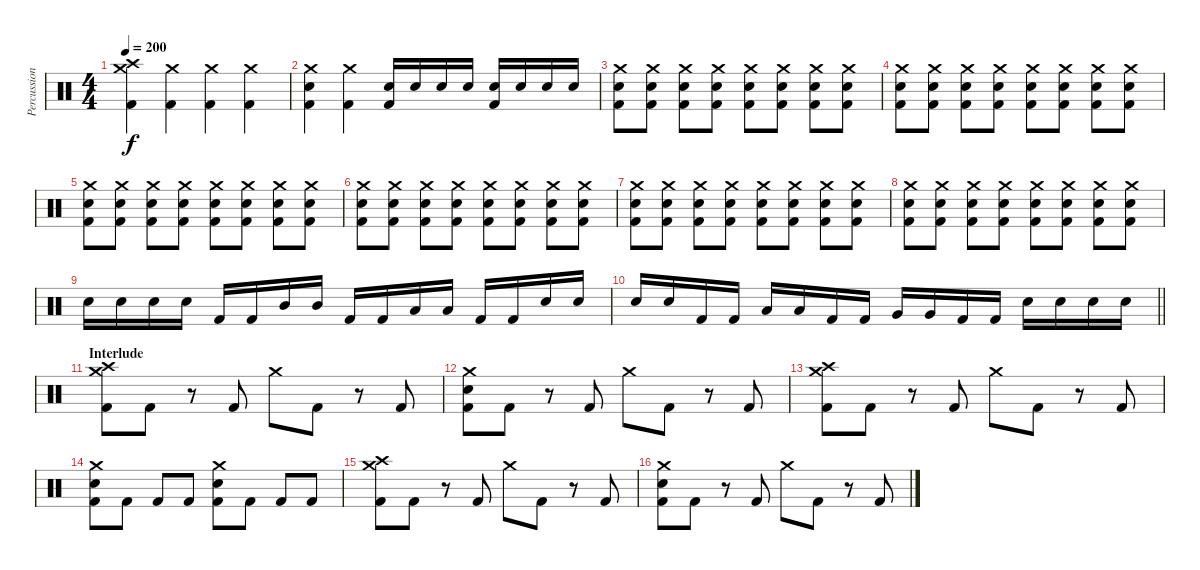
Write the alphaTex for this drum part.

\track ("Percussion" "Percussion") {instrument percussion}
\staff {score}
\articulation defaults
\ts (4 4)
\tempo 200
\clef neutral
\ks c
("Crash medium (hit)" "Crash high (hit)" "Kick (hit) 2").4{dy f} ("Crash medium (hit)" "Kick (hit) 2").4 ("Crash medium (hit)" "Kick (hit) 2").4 ("Crash medium (hit)" "Kick (hit) 2").4 |
("Crash medium (hit)" "Electric Snare (hit)" "Kick (hit) 2").4 ("Crash medium (hit)" "Kick (hit) 2").4 ("Electric Snare (hit)" "Kick (hit) 2").16 "Electric Snare (hit)".16 "Electric Snare (hit)".16 "Electric Snare (hit)".16 ("Electric Snare (hit)" "Kick (hit) 2").16 "Electric Snare (hit)".16 "Electric Snare (hit)".16 "Electric Snare (hit)".16 |
("Crash medium (hit)" "Electric Snare (hit)" "Kick (hit) 2").8 ("Crash medium (hit)" "Electric Snare (hit)" "Kick (hit) 2").8 ("Crash medium (hit)" "Electric Snare (hit)" "Kick (hit) 2").8 ("Crash medium (hit)" "Electric Snare (hit)" "Kick (hit) 2").8 ("Crash medium (hit)" "Electric Snare (hit)" "Kick (hit) 2").8 ("Crash medium (hit)" "Electric Snare (hit)" "Kick (hit) 2").8 ("Crash medium (hit)" "Electric Snare (hit)" "Kick (hit) 2").8 ("Crash medium (hit)" "Electric Snare (hit)" "Kick (hit) 2").8 |
("Crash medium (hit)" "Electric Snare (hit)" "Kick (hit) 2").8 ("Crash medium (hit)" "Electric Snare (hit)" "Kick (hit) 2").8 ("Crash medium (hit)" "Electric Snare (hit)" "Kick (hit) 2").8 ("Crash medium (hit)" "Electric Snare (hit)" "Kick (hit) 2").8 ("Crash medium (hit)" "Electric Snare (hit)" "Kick (hit) 2").8 ("Crash medium (hit)" "Electric Snare (hit)" "Kick (hit) 2").8 ("Crash medium (hit)" "Electric Snare (hit)" "Kick (hit) 2").8 ("Crash medium (hit)" "Electric Snare (hit)" "Kick (hit) 2").8 |
("Crash medium (hit)" "Electric Snare (hit)" "Kick (hit) 2").8 ("Crash medium (hit)" "Electric Snare (hit)" "Kick (hit) 2").8 ("Crash medium (hit)" "Electric Snare (hit)" "Kick (hit) 2").8 ("Crash medium (hit)" "Electric Snare (hit)" "Kick (hit) 2").8 ("Crash medium (hit)" "Electric Snare (hit)" "Kick (hit) 2").8 ("Crash medium (hit)" "Electric Snare (hit)" "Kick (hit) 2").8 ("Crash medium (hit)" "Electric Snare (hit)" "Kick (hit) 2").8 ("Crash medium (hit)" "Electric Snare (hit)" "Kick (hit) 2").8 |
("Crash medium (hit)" "Electric Snare (hit)" "Kick (hit) 2").8 ("Crash medium (hit)" "Electric Snare (hit)" "Kick (hit) 2").8 ("Crash medium (hit)" "Electric Snare (hit)" "Kick (hit) 2").8 ("Crash medium (hit)" "Electric Snare (hit)" "Kick (hit) 2").8 ("Crash medium (hit)" "Electric Snare (hit)" "Kick (hit) 2").8 ("Crash medium (hit)" "Electric Snare (hit)" "Kick (hit) 2").8 ("Crash medium (hit)" "Electric Snare (hit)" "Kick (hit) 2").8 ("Crash medium (hit)" "Electric Snare (hit)" "Kick (hit) 2").8 |
("Crash medium (hit)" "Electric Snare (hit)" "Kick (hit) 2").8 ("Crash medium (hit)" "Electric Snare (hit)" "Kick (hit) 2").8 ("Crash medium (hit)" "Electric Snare (hit)" "Kick (hit) 2").8 ("Crash medium (hit)" "Electric Snare (hit)" "Kick (hit) 2").8 ("Crash medium (hit)" "Electric Snare (hit)" "Kick (hit) 2").8 ("Crash medium (hit)" "Electric Snare (hit)" "Kick (hit) 2").8 ("Crash medium (hit)" "Electric Snare (hit)" "Kick (hit) 2").8 ("Crash medium (hit)" "Electric Snare (hit)" "Kick (hit) 2").8 |
("Crash medium (hit)" "Electric Snare (hit)" "Kick (hit) 2").8 ("Crash medium (hit)" "Electric Snare (hit)" "Kick (hit) 2").8 ("Crash medium (hit)" "Electric Snare (hit)" "Kick (hit) 2").8 ("Crash medium (hit)" "Electric Snare (hit)" "Kick (hit) 2").8 ("Crash medium (hit)" "Electric Snare (hit)" "Kick (hit) 2").8 ("Crash medium (hit)" "Electric Snare (hit)" "Kick (hit) 2").8 ("Crash medium (hit)" "Electric Snare (hit)" "Kick (hit) 2").8 ("Crash medium (hit)" "Electric Snare (hit)" "Kick (hit) 2").8 |
"Electric Snare (hit)".16 "Electric Snare (hit)".16 "Electric Snare (hit)".16 "Electric Snare (hit)".16 "Kick (hit) 2".16 "Kick (hit) 2".16 "Mid Tom (hit)".16 "Mid Tom (hit)".16 "Kick (hit) 2".16 "Kick (hit) 2".16 "Low Tom (hit)".16 "Low Tom (hit)".16 "Kick (hit) 2".16 "Kick (hit) 2".16 "Electric Snare (hit)".16 "Electric Snare (hit)".16 |
\barLineRight lightlight "Electric Snare (hit)".16 "Electric Snare (hit)".16 "Kick (hit) 2".16 "Kick (hit) 2".16 "Low Tom (hit)".16 "Low Tom (hit)".16 "Kick (hit) 2".16 "Kick (hit) 2".16 "Very Low Tom (hit)".16 "Very Low Tom (hit)".16 "Kick (hit) 2".16 "Kick (hit) 2".16 "Electric Snare (hit)".16 "Electric Snare (hit)".16 "Electric Snare (hit)".16 "Electric Snare (hit)".16
|
\section ("" "Interlude")
("Crash medium (hit)" "Crash high (hit)" "Kick (hit) 2").8 "Kick (hit) 2".8 r.8 "Kick (hit) 2".8 "Crash medium (hit)".8 "Kick (hit) 2".8 r.8 "Kick (hit) 2".8 |
("Crash medium (hit)" "Electric Snare (hit)" "Kick (hit) 2").8 "Kick (hit) 2".8 r.8 "Kick (hit) 2".8 "Crash medium (hit)".8 "Kick (hit) 2".8 r.8 "Kick (hit) 2".8 |
("Crash medium (hit)" "Crash high (hit)" "Kick (hit) 2").8 "Kick (hit) 2".8 r.8 "Kick (hit) 2".8 "Crash medium (hit)".8 "Kick (hit) 2".8 r.8 "Kick (hit) 2".8 |
("Crash medium (hit)" "Electric Snare (hit)" "Kick (hit) 2").8 "Kick (hit) 2".8 "Kick (hit) 2".8 "Kick (hit) 2".8 ("Crash medium (hit)" "Electric Snare (hit)" "Kick (hit) 2").8 "Kick (hit) 2".8 "Kick (hit) 2".8 "Kick (hit) 2".8 |
("Crash medium (hit)" "Crash high (hit)" "Kick (hit) 2").8 "Kick (hit) 2".8 r.8 "Kick (hit) 2".8 "Crash medium (hit)".8 "Kick (hit) 2".8 r.8 "Kick (hit) 2".8 |
("Crash medium (hit)" "Electric Snare (hit)" "Kick (hit) 2").8 "Kick (hit) 2".8 r.8 "Kick (hit) 2".8 "Crash medium (hit)".8 "Kick (hit) 2".8 r.8 "Kick (hit) 2".8
